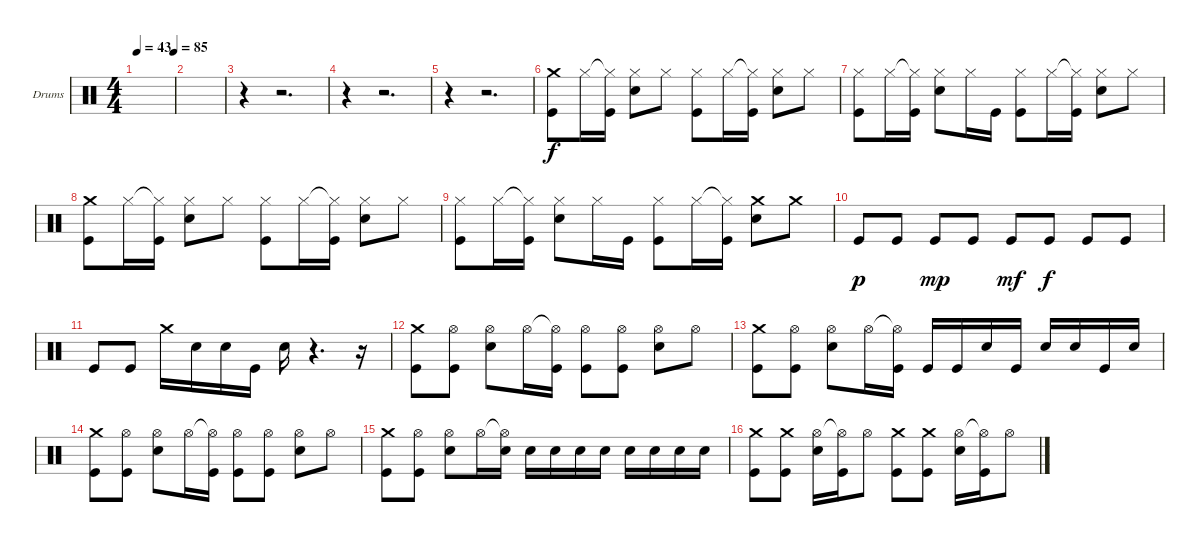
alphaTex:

\defaultSystemsLayout 4
\bracketExtendMode groupsimilarinstruments
\firstSystemTrackNameOrientation horizontal
\otherSystemsTrackNameOrientation horizontal
\track ("Drumkit" "Drums") {instrument percussion}
\staff {score}
\articulation defaults
\ts (4 4)
\tempo 43
\tempo (85 1)
\clef neutral
\scale
0.472222
\ks c
|
\scale
0.263889 |
\scale
0.263889 r.4 r.2{d} |
\scale
0.333333 r.4 r.2{d} |
\scale
0.333333 r.4 r.2{d} |
\scale
0.333333 ("Crash medium (hit)" "Kick (hit)").8 "Hi-Hat (closed)".16 ("Hi-Hat (closed)"{t} "Kick (hit)").16 ("Hi-Hat (closed)" "Snare (hit) 2").8 "Hi-Hat (closed)".8 ("Hi-Hat (closed)" "Kick (hit)").8 "Hi-Hat (closed)".16 ("Hi-Hat (closed)"{t} "Kick (hit)").16 ("Hi-Hat (closed)" "Snare (hit) 2").8 "Hi-Hat (closed)".8 |
\scale
0.333333 ("Hi-Hat (closed)" "Kick (hit)").8 "Hi-Hat (closed)".16 ("Hi-Hat (closed)"{t} "Kick (hit)").16 ("Hi-Hat (closed)" "Snare (hit) 2").8 "Hi-Hat (closed)".16 "Kick (hit)".16 ("Hi-Hat (closed)" "Kick (hit)").8 "Hi-Hat (closed)".16 ("Hi-Hat (closed)"{t} "Kick (hit)").16 ("Hi-Hat (closed)" "Snare (hit) 2").8 "Hi-Hat (closed)".8 |
\scale
0.333333 ("Crash medium (hit)" "Kick (hit)").8 "Hi-Hat (closed)".16 ("Hi-Hat (closed)"{t} "Kick (hit)").16 ("Hi-Hat (closed)" "Snare (hit) 2").8 "Hi-Hat (closed)".8 ("Hi-Hat (closed)" "Kick (hit)").8 "Hi-Hat (closed)".16 ("Hi-Hat (closed)"{t} "Kick (hit)").16 ("Hi-Hat (closed)" "Snare (hit) 2").8 "Hi-Hat (closed)".8 |
\scale
0.333333 ("Hi-Hat (closed)" "Kick (hit)").8 "Hi-Hat (closed)".16 ("Hi-Hat (closed)"{t} "Kick (hit)").16 ("Hi-Hat (closed)" "Snare (hit) 2").8 "Hi-Hat (closed)".16 "Kick (hit)".16 ("Hi-Hat (closed)" "Kick (hit)").8 "Hi-Hat (closed)".16 ("Hi-Hat (closed)"{t} "Kick (hit)").16 ("Crash medium (hit)" "Snare (hit) 2").8 "Crash medium (hit)".8 |
\scale
0.333333 "Kick (hit)".8{dy p} "Kick (hit)".8 "Kick (hit)".8{dy mp} "Kick (hit)".8 "Kick (hit)".8{dy mf} "Kick (hit)".8{dy f} "Kick (hit)".8 "Kick (hit)".8 |
\scale
0.333333 "Kick (hit)".8 "Kick (hit)".8 "Crash medium (hit)".16 "Snare (hit) 2".16 "Snare (hit) 2".16 "Kick (hit)".16 "Snare (hit) 2".16 r.4{d} r.16 |
\scale
0.333333 ("Crash medium (hit)" "Kick (hit)").8 ("Hi-Hat (open)" "Kick (hit)").8 ("Hi-Hat (open)" "Snare (hit) 2").8 "Hi-Hat (open)".16 ("Hi-Hat (open)"{t} "Kick (hit)").16 ("Hi-Hat (open)" "Kick (hit)").8 ("Hi-Hat (open)" "Kick (hit)").8 ("Hi-Hat (open)" "Snare (hit) 2").8 "Hi-Hat (open)".8 |
\scale
0.333333 ("Crash medium (hit)" "Kick (hit)").8 ("Hi-Hat (open)" "Kick (hit)").8 ("Hi-Hat (open)" "Snare (hit) 2").8 "Hi-Hat (open)".16 ("Hi-Hat (open)"{t} "Kick (hit)").16 "Kick (hit)".16 "Kick (hit)".16 "Snare (hit) 2".16 "Kick (hit)".16 "Snare (hit) 2".16 "Snare (hit) 2".16 "Kick (hit)".16 "Snare (hit) 2".16 |
\scale
0.333333 ("Crash medium (hit)" "Kick (hit)").8 ("Hi-Hat (open)" "Kick (hit)").8 ("Hi-Hat (open)" "Snare (hit) 2").8 "Hi-Hat (open)".16 ("Hi-Hat (open)"{t} "Kick (hit)").16 ("Hi-Hat (open)" "Kick (hit)").8 ("Hi-Hat (open)" "Kick (hit)").8 ("Hi-Hat (open)" "Snare (hit) 2").8 "Hi-Hat (open)".8 |
\scale
0.333333 ("Crash medium (hit)" "Kick (hit)").8 ("Hi-Hat (open)" "Kick (hit)").8 ("Hi-Hat (open)" "Snare (hit) 2").8 "Hi-Hat (open)".16 ("Hi-Hat (open)"{t} "Snare (hit) 2").16 "Snare (hit) 2".16 "Snare (hit) 2".16 "Snare (hit) 2".16 "Snare (hit) 2".16 "Snare (hit) 2".16 "Snare (hit) 2".16 "Snare (hit) 2".16 "Snare (hit) 2".16 |
\scale
0.333333 ("Crash medium (hit)" "Kick (hit)").8 ("Crash medium (hit)" "Kick (hit)").8 ("Hi-Hat (open)" "Snare (hit) 2").16 ("Hi-Hat (open)"{t} "Kick (hit)").16 "Hi-Hat (open)".8 ("Crash medium (hit)" "Kick (hit)").8 ("Crash medium (hit)" "Kick (hit)").8 ("Hi-Hat (open)" "Snare (hit) 2").16 ("Hi-Hat (open)"{t} "Kick (hit)").16 "Hi-Hat (open)".8
